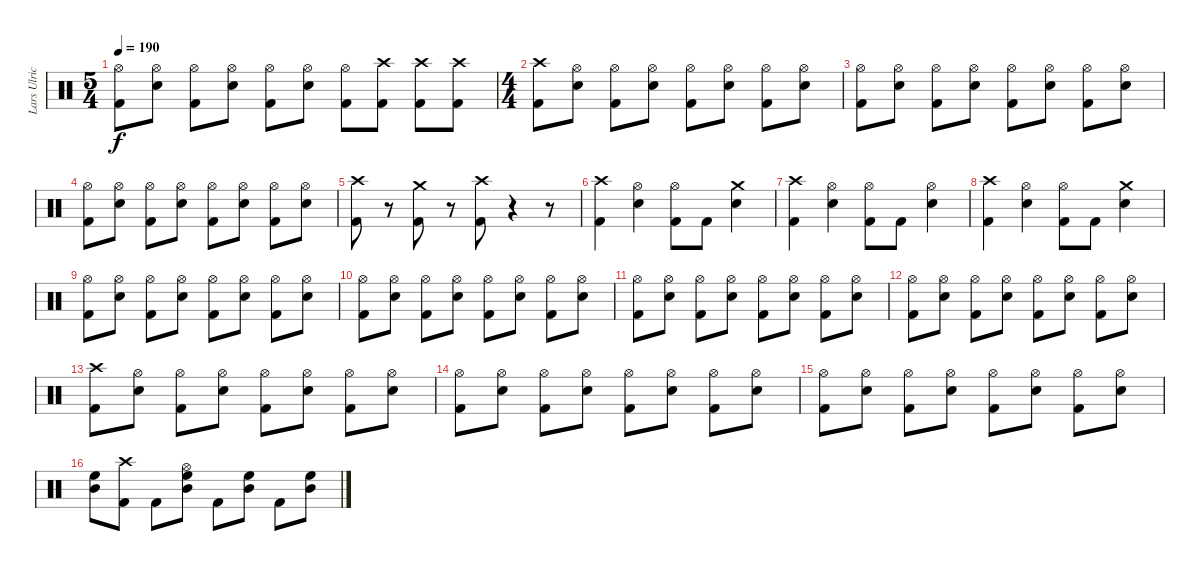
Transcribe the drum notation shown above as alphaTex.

\track ("Lars Ulrich" "Lars Ulric") {instrument percussion}
\staff {score}
\articulation defaults
\ts (5 4)
\tempo 190
\clef neutral
\ks c
("Hi-Hat (open)" "Kick (hit) 2").8{dy f} ("Hi-Hat (open)" "Snare (hit) 2").8 ("Hi-Hat (open)" "Kick (hit) 2").8 ("Hi-Hat (open)" "Snare (hit) 2").8 ("Hi-Hat (open)" "Kick (hit) 2").8 ("Hi-Hat (open)" "Snare (hit) 2").8 ("Hi-Hat (open)" "Kick (hit) 2").8 ("Crash high (hit)" "Kick (hit) 2").8 ("Crash high (hit)" "Kick (hit) 2").8 ("Crash high (hit)" "Kick (hit) 2").8 |
\ts (4 4)
("Crash high (hit)" "Kick (hit) 2").8 ("Hi-Hat (open)" "Snare (hit) 2").8 ("Hi-Hat (open)" "Kick (hit) 2").8 ("Hi-Hat (open)" "Snare (hit) 2").8 ("Hi-Hat (open)" "Kick (hit) 2").8 ("Hi-Hat (open)" "Snare (hit) 2").8 ("Hi-Hat (open)" "Kick (hit) 2").8 ("Hi-Hat (open)" "Snare (hit) 2").8 |
("Hi-Hat (open)" "Kick (hit) 2").8 ("Hi-Hat (open)" "Snare (hit) 2").8 ("Hi-Hat (open)" "Kick (hit) 2").8 ("Hi-Hat (open)" "Snare (hit) 2").8 ("Hi-Hat (open)" "Kick (hit) 2").8 ("Hi-Hat (open)" "Snare (hit) 2").8 ("Hi-Hat (open)" "Kick (hit) 2").8 ("Hi-Hat (open)" "Snare (hit) 2").8 |
("Hi-Hat (open)" "Kick (hit) 2").8 ("Hi-Hat (open)" "Snare (hit) 2").8 ("Hi-Hat (open)" "Kick (hit) 2").8 ("Hi-Hat (open)" "Snare (hit) 2").8 ("Hi-Hat (open)" "Kick (hit) 2").8 ("Hi-Hat (open)" "Snare (hit) 2").8 ("Hi-Hat (open)" "Kick (hit) 2").8 ("Hi-Hat (open)" "Snare (hit) 2").8 |
("Crash high (hit)" "Kick (hit) 2").8 r.8 ("Crash medium (hit)" "Kick (hit) 2").8 r.8 ("Crash high (hit)" "Kick (hit) 2").8 r.4 r.8 |
("Crash high (hit)" "Kick (hit) 2").4 ("Hi-Hat (open)" "Snare (hit) 2").4 ("Hi-Hat (open)" "Kick (hit) 2").8 "Kick (hit) 2".8 ("Crash medium (hit)" "Snare (hit) 2").4 |
("Crash high (hit)" "Kick (hit) 2").4 ("Hi-Hat (open)" "Snare (hit) 2").4 ("Hi-Hat (open)" "Kick (hit) 2").8 "Kick (hit) 2".8 ("Hi-Hat (open)" "Snare (hit) 2").4 |
("Crash high (hit)" "Kick (hit) 2").4 ("Hi-Hat (open)" "Snare (hit) 2").4 ("Hi-Hat (open)" "Kick (hit) 2").8 "Kick (hit) 2".8 ("Crash medium (hit)" "Snare (hit) 2").4 |
("Hi-Hat (open)" "Kick (hit) 2").8 ("Hi-Hat (open)" "Snare (hit) 2").8 ("Hi-Hat (open)" "Kick (hit) 2").8 ("Hi-Hat (open)" "Snare (hit) 2").8 ("Hi-Hat (open)" "Kick (hit) 2").8 ("Hi-Hat (open)" "Snare (hit) 2").8 ("Hi-Hat (open)" "Kick (hit) 2").8 ("Hi-Hat (open)" "Snare (hit) 2").8 |
("Hi-Hat (open)" "Kick (hit) 2").8 ("Hi-Hat (open)" "Snare (hit) 2").8 ("Hi-Hat (open)" "Kick (hit) 2").8 ("Hi-Hat (open)" "Snare (hit) 2").8 ("Hi-Hat (open)" "Kick (hit) 2").8 ("Hi-Hat (open)" "Snare (hit) 2").8 ("Hi-Hat (open)" "Kick (hit) 2").8 ("Hi-Hat (open)" "Snare (hit) 2").8 |
("Hi-Hat (open)" "Kick (hit) 2").8 ("Hi-Hat (open)" "Snare (hit) 2").8 ("Hi-Hat (open)" "Kick (hit) 2").8 ("Hi-Hat (open)" "Snare (hit) 2").8 ("Hi-Hat (open)" "Kick (hit) 2").8 ("Hi-Hat (open)" "Snare (hit) 2").8 ("Hi-Hat (open)" "Kick (hit) 2").8 ("Hi-Hat (open)" "Snare (hit) 2").8 |
("Hi-Hat (open)" "Kick (hit) 2").8 ("Hi-Hat (open)" "Snare (hit) 2").8 ("Hi-Hat (open)" "Kick (hit) 2").8 ("Hi-Hat (open)" "Snare (hit) 2").8 ("Hi-Hat (open)" "Kick (hit) 2").8 ("Hi-Hat (open)" "Snare (hit) 2").8 ("Hi-Hat (open)" "Kick (hit) 2").8 ("Hi-Hat (open)" "Snare (hit) 2").8 |
("Crash high (hit)" "Kick (hit) 2").8 ("Hi-Hat (open)" "Snare (hit) 2").8 ("Hi-Hat (open)" "Kick (hit) 2").8 ("Hi-Hat (open)" "Snare (hit) 2").8 ("Hi-Hat (open)" "Kick (hit) 2").8 ("Hi-Hat (open)" "Snare (hit) 2").8 ("Hi-Hat (open)" "Kick (hit) 2").8 ("Hi-Hat (open)" "Snare (hit) 2").8 |
("Hi-Hat (open)" "Kick (hit) 2").8 ("Hi-Hat (open)" "Snare (hit) 2").8 ("Hi-Hat (open)" "Kick (hit) 2").8 ("Hi-Hat (open)" "Snare (hit) 2").8 ("Hi-Hat (open)" "Kick (hit) 2").8 ("Hi-Hat (open)" "Snare (hit) 2").8 ("Hi-Hat (open)" "Kick (hit) 2").8 ("Hi-Hat (open)" "Snare (hit) 2").8 |
("Hi-Hat (open)" "Kick (hit) 2").8 ("Hi-Hat (open)" "Snare (hit) 2").8 ("Hi-Hat (open)" "Kick (hit) 2").8 ("Hi-Hat (open)" "Snare (hit) 2").8 ("Hi-Hat (open)" "Kick (hit) 2").8 ("Hi-Hat (open)" "Snare (hit) 2").8 ("Hi-Hat (open)" "Kick (hit) 2").8 ("Hi-Hat (open)" "Snare (hit) 2").8 |
("Mid Tom (hit)" "High Floor Tom (hit)").8 ("Crash high (hit)" "Kick (hit) 2").8 "Kick (hit) 2".8 ("Hi-Hat (open)" "Mid Tom (hit)" "High Floor Tom (hit)").8 "Kick (hit) 2".8 ("Mid Tom (hit)" "High Floor Tom (hit)").8 "Kick (hit) 2".8 ("Mid Tom (hit)" "High Floor Tom (hit)").8
